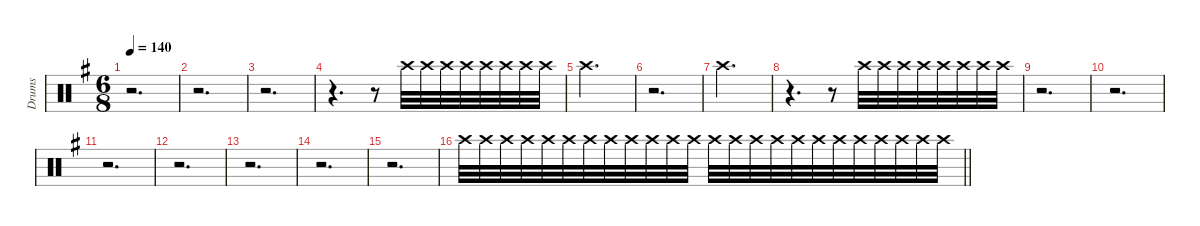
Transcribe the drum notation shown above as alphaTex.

\defaultSystemsLayout 8
\hideDynamics
\bracketExtendMode groupsimilarinstruments
\firstSystemTrackNameMode fullname
\otherSystemsTrackNameOrientation horizontal
\track ("Drums" "drm.") {defaultSystemsLayout 4 instrument percussion}
\staff {score}
\articulation defaults
\ts (6 8)
\tempo 140
\clef neutral
\ks g
r.2{d dy ff beam Down} |
r.2{d beam Down} |
r.2{d beam Down} |
r.4{d beam Down} r.8{beam Down} "Crash high (hit)"{acc forcenatural}.32{dy pp beam Down} "Crash high (hit)"{acc forcenatural}.32{beam Down} "Crash high (hit)"{acc forcenatural}.32{dy p beam Down} "Crash high (hit)"{acc forcenatural}.32{beam Down} "Crash high (hit)"{acc forcenatural}.32{dy mp beam Down} "Crash high (hit)"{acc forcenatural}.32{beam Down} "Crash high (hit)"{acc forcenatural}.32{dy mf beam Down} "Crash high (hit)"{acc forcenatural}.32{beam Down} |
"Crash high (hit)"{acc forcenatural}.2{d dy ff beam Down} |
r.2{d beam Down} |
"Crash high (hit)"{acc forcenatural}.2{d beam Down} |
r.4{d beam Down} r.8{beam Down} "Crash high (hit)"{acc forcenatural}.32{dy pp beam Down} "Crash high (hit)"{acc forcenatural}.32{beam Down} "Crash high (hit)"{acc forcenatural}.32{dy p beam Down} "Crash high (hit)"{acc forcenatural}.32{beam Down} "Crash high (hit)"{acc forcenatural}.32{dy mp beam Down} "Crash high (hit)"{acc forcenatural}.32{beam Down} "Crash high (hit)"{acc forcenatural}.32{dy mf beam Down} "Crash high (hit)"{acc forcenatural}.32{beam Down} |
r.2{d beam Down} |
r.2{d beam Down} |
r.2{d beam Down} |
r.2{d beam Down} |
r.2{d beam Down} |
r.2{d beam Down} |
r.2{d beam Down} |
\barLineRight lightlight "Crash high (hit)"{acc forcenatural}.32{dy ppp beam Down} "Crash high (hit)"{acc forcenatural}.32{beam Down} "Crash high (hit)"{acc forcenatural}.32{beam Down} "Crash high (hit)"{acc forcenatural}.32{beam Down} "Crash high (hit)"{acc forcenatural}.32{dy pp beam Down} "Crash high (hit)"{acc forcenatural}.32{beam Down} "Crash high (hit)"{acc forcenatural}.32{beam Down} "Crash high (hit)"{acc forcenatural}.32{beam Down} "Crash high (hit)"{acc forcenatural}.32{dy p beam Down} "Crash high (hit)"{acc forcenatural}.32{beam Down} "Crash high (hit)"{acc forcenatural}.32{beam Down} "Crash high (hit)"{acc forcenatural}.32{beam Down} "Crash high (hit)"{acc forcenatural}.32{dy mp beam Down} "Crash high (hit)"{acc forcenatural}.32{beam Down} "Crash high (hit)"{acc forcenatural}.32{beam Down} "Crash high (hit)"{acc forcenatural}.32{beam Down} "Crash high (hit)"{acc forcenatural}.32{dy mf beam Down} "Crash high (hit)"{acc forcenatural}.32{beam Down} "Crash high (hit)"{acc forcenatural}.32{beam Down} "Crash high (hit)"{acc forcenatural}.32{beam Down} "Crash high (hit)"{acc forcenatural}.32{dy f beam Down} "Crash high (hit)"{acc forcenatural}.32{beam Down} "Crash high (hit)"{acc forcenatural}.32{beam Down} "Crash high (hit)"{acc forcenatural}.32{beam Down}
